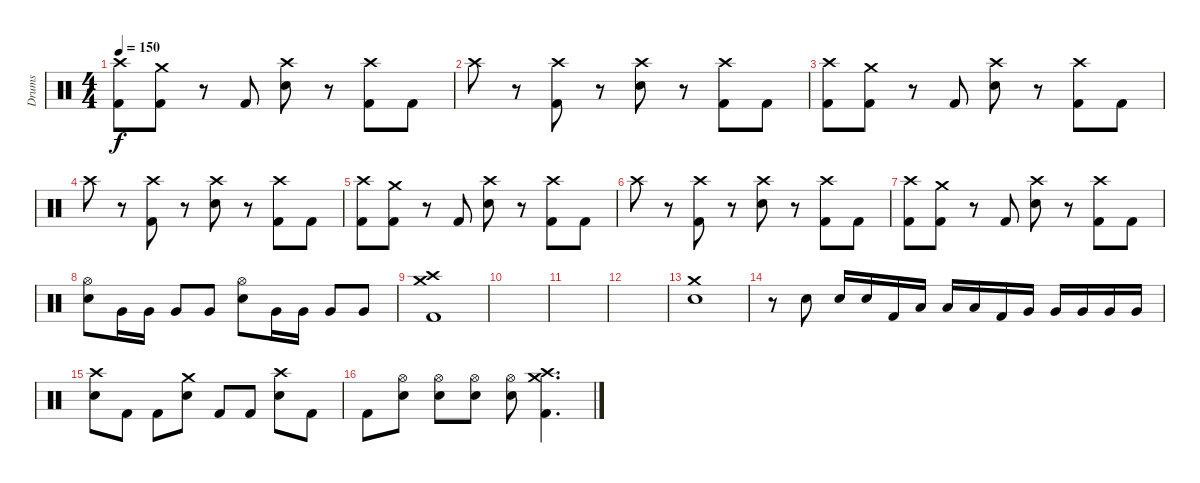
\track ("Drums" "Drums") {instrument percussion}
\staff {score}
\articulation defaults
\ts (4 4)
\tempo 150
\clef neutral
\ks c
("Crash high (hit)" "Kick (hit) 2").8{dy f} ("Crash medium (hit)" "Kick (hit) 2").8 r.8 "Kick (hit) 2".8 ("Crash high (hit)" "Electric Snare (hit)").8 r.8 ("Crash high (hit)" "Kick (hit) 2").8 "Kick (hit) 2".8 |
"Crash high (hit)".8 r.8 ("Crash high (hit)" "Kick (hit) 2").8 r.8 ("Crash high (hit)" "Electric Snare (hit)").8 r.8 ("Crash high (hit)" "Kick (hit) 2").8 "Kick (hit) 2".8 |
("Crash high (hit)" "Kick (hit) 2").8 ("Crash medium (hit)" "Kick (hit) 2").8 r.8 "Kick (hit) 2".8 ("Crash high (hit)" "Electric Snare (hit)").8 r.8 ("Crash high (hit)" "Kick (hit) 2").8 "Kick (hit) 2".8 |
"Crash high (hit)".8 r.8 ("Crash high (hit)" "Kick (hit) 2").8 r.8 ("Crash high (hit)" "Electric Snare (hit)").8 r.8 ("Crash high (hit)" "Kick (hit) 2").8 "Kick (hit) 2".8 |
("Crash high (hit)" "Kick (hit) 2").8 ("Crash medium (hit)" "Kick (hit) 2").8 r.8 "Kick (hit) 2".8 ("Crash high (hit)" "Electric Snare (hit)").8 r.8 ("Crash high (hit)" "Kick (hit) 2").8 "Kick (hit) 2".8 |
"Crash high (hit)".8 r.8 ("Crash high (hit)" "Kick (hit) 2").8 r.8 ("Crash high (hit)" "Electric Snare (hit)").8 r.8 ("Crash high (hit)" "Kick (hit) 2").8 "Kick (hit) 2".8 |
("Crash high (hit)" "Kick (hit) 2").8 ("Crash medium (hit)" "Kick (hit) 2").8 r.8 "Kick (hit) 2".8 ("Crash high (hit)" "Electric Snare (hit)").8 r.8 ("Crash high (hit)" "Kick (hit) 2").8 "Kick (hit) 2".8 |
("Hi-Hat (open)" "Electric Snare (hit)").8 "Very Low Tom (hit)".16 "Very Low Tom (hit)".16 "Very Low Tom (hit)".8 "Very Low Tom (hit)".8 ("Hi-Hat (open)" "Electric Snare (hit)").8 "Very Low Tom (hit)".16 "Very Low Tom (hit)".16 "Very Low Tom (hit)".8 "Very Low Tom (hit)".8 |
("Crash high (hit)" "Crash medium (hit)" "Kick (hit) 2").1 |
|
|
|
("Crash medium (hit)" "Electric Snare (hit)").1 |
r.8 "Electric Snare (hit)".8 "Electric Snare (hit)".16 "Electric Snare (hit)".16 "Kick (hit) 2".16 "Low Tom (hit)".16 "Low Tom (hit)".16 "Low Tom (hit)".16 "Kick (hit) 2".16 "Very Low Tom (hit)".16 "Very Low Tom (hit)".16 "Very Low Tom (hit)".16 "Very Low Tom (hit)".16 "Very Low Tom (hit)".16 |
("Crash high (hit)" "Electric Snare (hit)").8 "Kick (hit) 2".8 "Kick (hit) 2".8 ("Crash medium (hit)" "Electric Snare (hit)").8 "Kick (hit) 2".8 "Kick (hit) 2".8 ("Crash high (hit)" "Electric Snare (hit)").8 "Kick (hit) 2".8 |
"Kick (hit) 2".8 ("Hi-Hat (open)" "Electric Snare (hit)").8 ("Hi-Hat (open)" "Electric Snare (hit)").8 ("Hi-Hat (open)" "Electric Snare (hit)").8 ("Hi-Hat (open)" "Electric Snare (hit)").8 ("Crash medium (hit)" "Crash high (hit)" "Kick (hit) 2").4{d}
